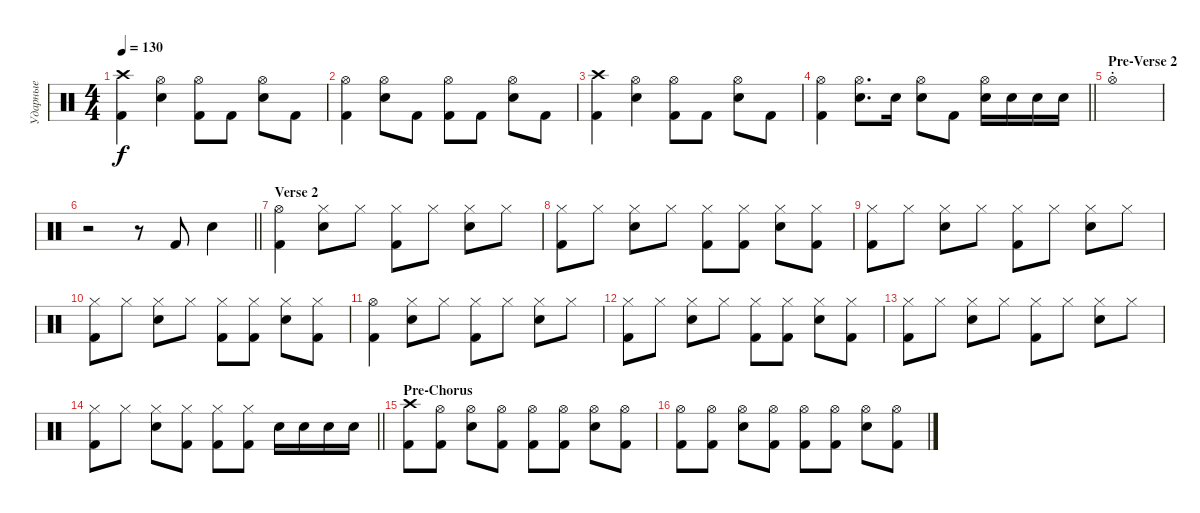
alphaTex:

\track ("Ударные" "Ударные") {instrument percussion}
\staff {score}
\articulation defaults
\ts (4 4)
\tempo 130
\clef neutral
\ks c
("Crash high (hit)" "Kick (hit) 2").4{dy f} ("Hi-Hat (open)" "Snare (hit) 2").4 ("Hi-Hat (open)" "Kick (hit) 2").8 "Kick (hit) 2".8 ("Hi-Hat (open)" "Snare (hit) 2").8 "Kick (hit) 2".8 |
("Hi-Hat (open)" "Kick (hit) 2").4 ("Hi-Hat (open)" "Snare (hit) 2").8 "Kick (hit) 2".8 ("Hi-Hat (open)" "Kick (hit) 2").8 "Kick (hit) 2".8 ("Hi-Hat (open)" "Snare (hit) 2").8 "Kick (hit) 2".8 |
("Crash high (hit)" "Kick (hit) 2").4 ("Hi-Hat (open)" "Snare (hit) 2").4 ("Hi-Hat (open)" "Kick (hit) 2").8 "Kick (hit) 2".8 ("Hi-Hat (open)" "Snare (hit) 2").8 "Kick (hit) 2".8 |
\barLineRight lightlight
("Hi-Hat (open)" "Kick (hit) 2").4 ("Hi-Hat (open)" "Snare (hit) 2").8{d} "Snare (hit) 2".16 ("Hi-Hat (open)" "Snare (hit) 2").8 "Kick (hit) 2".8 ("Hi-Hat (open)" "Snare (hit) 2").16 "Snare (hit) 2".16 "Snare (hit) 2".16 "Snare (hit) 2".16 |
\section ("" "Pre-Verse 2")
"Hi-Hat (open)"{st}.1 |
\barLineRight lightlight
r.2 r.8 "Kick (hit) 2".8 "Snare (hit) 2".4 |
\section ("" "Verse 2")
("Hi-Hat (open)" "Kick (hit) 2").4 ("Hi-Hat (closed)" "Snare (hit) 2").8 "Hi-Hat (closed)".8 ("Hi-Hat (closed)" "Kick (hit) 2").8 "Hi-Hat (closed)".8 ("Hi-Hat (closed)" "Snare (hit) 2").8 "Hi-Hat (closed)".8 |
("Hi-Hat (closed)" "Kick (hit) 2").8 "Hi-Hat (closed)".8 ("Hi-Hat (closed)" "Snare (hit) 2").8 "Hi-Hat (closed)".8 ("Hi-Hat (closed)" "Kick (hit) 2").8 ("Hi-Hat (closed)" "Kick (hit) 2").8 ("Hi-Hat (closed)" "Snare (hit) 2").8 ("Hi-Hat (closed)" "Kick (hit) 2").8 |
("Hi-Hat (closed)" "Kick (hit) 2").8 "Hi-Hat (closed)".8 ("Hi-Hat (closed)" "Snare (hit) 2").8 "Hi-Hat (closed)".8 ("Hi-Hat (closed)" "Kick (hit) 2").8 "Hi-Hat (closed)".8 ("Hi-Hat (closed)" "Snare (hit) 2").8 "Hi-Hat (closed)".8 |
("Hi-Hat (closed)" "Kick (hit) 2").8 "Hi-Hat (closed)".8 ("Hi-Hat (closed)" "Snare (hit) 2").8 "Hi-Hat (closed)".8 ("Hi-Hat (closed)" "Kick (hit) 2").8 ("Hi-Hat (closed)" "Kick (hit) 2").8 ("Hi-Hat (closed)" "Snare (hit) 2").8 ("Hi-Hat (closed)" "Kick (hit) 2").8 |
("Hi-Hat (open)" "Kick (hit) 2").4 ("Hi-Hat (closed)" "Snare (hit) 2").8 "Hi-Hat (closed)".8 ("Hi-Hat (closed)" "Kick (hit) 2").8 "Hi-Hat (closed)".8 ("Hi-Hat (closed)" "Snare (hit) 2").8 "Hi-Hat (closed)".8 |
("Hi-Hat (closed)" "Kick (hit) 2").8 "Hi-Hat (closed)".8 ("Hi-Hat (closed)" "Snare (hit) 2").8 "Hi-Hat (closed)".8 ("Hi-Hat (closed)" "Kick (hit) 2").8 ("Hi-Hat (closed)" "Kick (hit) 2").8 ("Hi-Hat (closed)" "Snare (hit) 2").8 ("Hi-Hat (closed)" "Kick (hit) 2").8 |
("Hi-Hat (closed)" "Kick (hit) 2").8 "Hi-Hat (closed)".8 ("Hi-Hat (closed)" "Snare (hit) 2").8 "Hi-Hat (closed)".8 ("Hi-Hat (closed)" "Kick (hit) 2").8 "Hi-Hat (closed)".8 ("Hi-Hat (closed)" "Snare (hit) 2").8 "Hi-Hat (closed)".8 |
\barLineRight lightlight
("Hi-Hat (closed)" "Kick (hit) 2").8 "Hi-Hat (closed)".8 ("Hi-Hat (closed)" "Snare (hit) 2").8 ("Hi-Hat (closed)" "Kick (hit) 2").8 ("Hi-Hat (closed)" "Kick (hit) 2").8 ("Hi-Hat (closed)" "Kick (hit) 2").8 "Snare (hit) 2".16 "Snare (hit) 2".16 "Snare (hit) 2".16 "Snare (hit) 2".16 |
\section ("" "Pre-Chorus")
("Crash high (hit)" "Kick (hit) 2").8 ("Hi-Hat (open)" "Kick (hit) 2").8 ("Hi-Hat (open)" "Snare (hit) 2").8 ("Hi-Hat (open)" "Kick (hit) 2").8 ("Hi-Hat (open)" "Kick (hit) 2").8 ("Hi-Hat (open)" "Kick (hit) 2").8 ("Hi-Hat (open)" "Snare (hit) 2").8 ("Hi-Hat (open)" "Kick (hit) 2").8 |
("Hi-Hat (open)" "Kick (hit) 2").8 ("Hi-Hat (open)" "Kick (hit) 2").8 ("Hi-Hat (open)" "Snare (hit) 2").8 ("Hi-Hat (open)" "Kick (hit) 2").8 ("Hi-Hat (open)" "Kick (hit) 2").8 ("Hi-Hat (open)" "Kick (hit) 2").8 ("Hi-Hat (open)" "Snare (hit) 2").8 ("Hi-Hat (open)" "Kick (hit) 2").8
